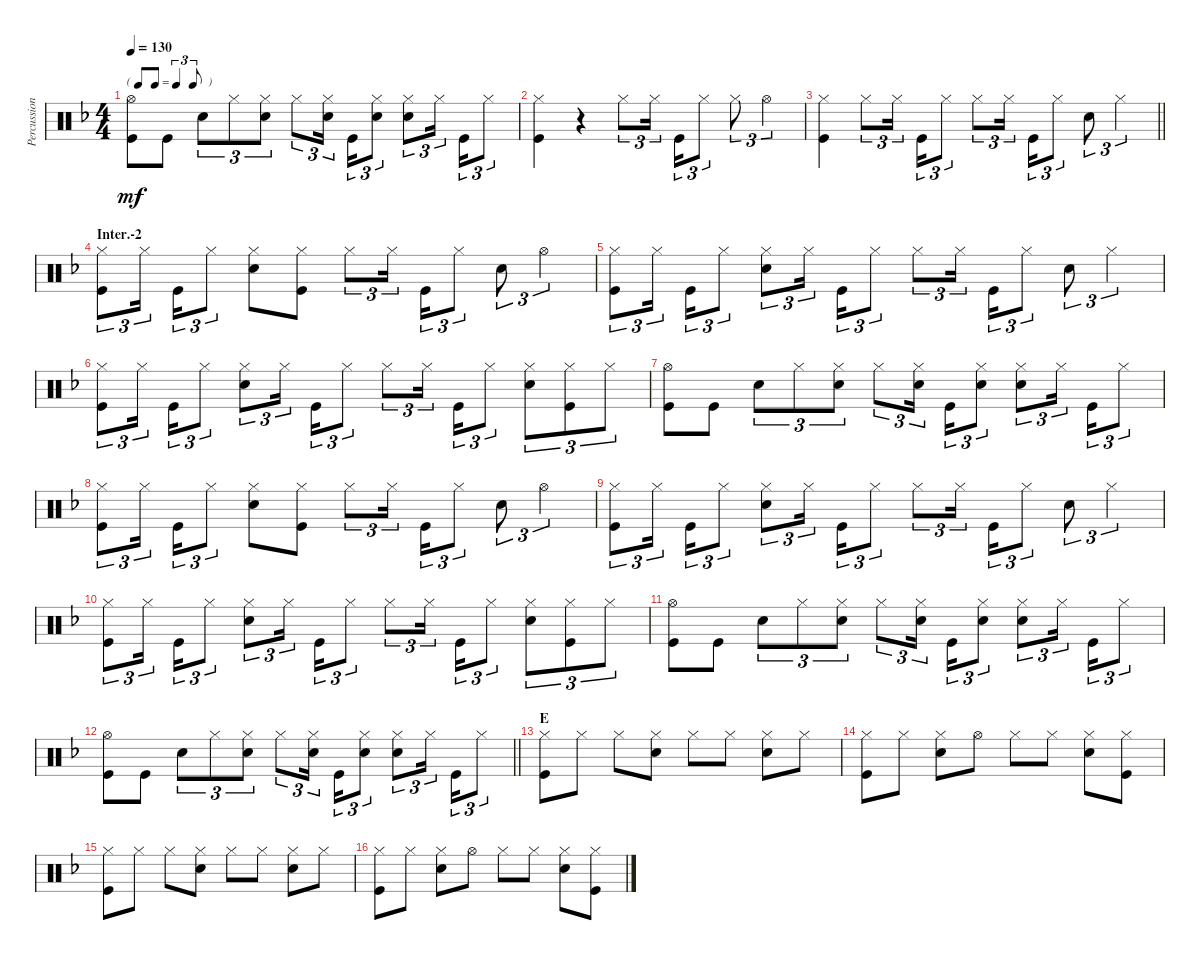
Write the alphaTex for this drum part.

\track ("Percussion I (Tainaka Ritsu)" "Percussion") {instrument percussion}
\staff {score}
\articulation defaults
\ts (4 4)
\tf triplet8th
\tempo 130
\clef neutral
\ks f
("Hi-Hat (open)" "Kick (hit)").8{dy mf} "Kick (hit)".8 "Snare (hit) 2".8{tu (3 2)} "Hi-Hat (closed)".8{tu (3 2)} ("Hi-Hat (closed)" "Snare (hit) 2").8{tu (3 2)} "Hi-Hat (closed)".8{tu (3 2)} ("Hi-Hat (closed)" "Snare (hit) 2").16{tu (3 2) beam splitsecondary} "Kick (hit)".16{tu (3 2)} ("Hi-Hat (closed)" "Snare (hit) 2").8{tu (3 2)} ("Hi-Hat (closed)" "Snare (hit) 2").8{tu (3 2)} "Hi-Hat (closed)".16{tu (3 2) beam splitsecondary} "Kick (hit)".16{tu (3 2)} "Hi-Hat (closed)".8{tu (3 2)} |
("Hi-Hat (closed)" "Kick (hit)").4 r.4 "Hi-Hat (closed)".8{tu (3 2)} "Hi-Hat (closed)".16{tu (3 2) beam splitsecondary} "Kick (hit)".16{tu (3 2)} "Hi-Hat (closed)".8{tu (3 2)} "Hi-Hat (closed)".8{tu (3 2)} "Hi-Hat (open)".4{tu (3 2)} |
\barLineRight lightlight
("Hi-Hat (closed)" "Kick (hit)").4 "Hi-Hat (closed)".8{tu (3 2)} "Hi-Hat (closed)".16{tu (3 2) beam splitsecondary} "Kick (hit)".16{tu (3 2)} "Hi-Hat (closed)".8{tu (3 2)} "Hi-Hat (closed)".8{tu (3 2)} "Hi-Hat (closed)".16{tu (3 2) beam splitsecondary} "Kick (hit)".16{tu (3 2)} "Hi-Hat (closed)".8{tu (3 2)} "Snare (hit) 2".8{tu (3 2)} "Hi-Hat (closed)".4{tu (3 2)} |
\section ("" "Inter.-2")
("Hi-Hat (closed)" "Kick (hit)").8{tu (3 2)} "Hi-Hat (closed)".16{tu (3 2) beam splitsecondary} "Kick (hit)".16{tu (3 2)} "Hi-Hat (closed)".8{tu (3 2)} ("Hi-Hat (closed)" "Snare (hit) 2").8 ("Hi-Hat (closed)" "Kick (hit)").8 "Hi-Hat (closed)".8{tu (3 2)} "Hi-Hat (closed)".16{tu (3 2) beam splitsecondary} "Kick (hit)".16{tu (3 2)} "Hi-Hat (closed)".8{tu (3 2)} "Snare (hit) 2".8{tu (3 2)} "Hi-Hat (open)".4{tu (3 2)} |
("Hi-Hat (closed)" "Kick (hit)").8{tu (3 2)} "Hi-Hat (closed)".16{tu (3 2) beam splitsecondary} "Kick (hit)".16{tu (3 2)} "Hi-Hat (closed)".8{tu (3 2)} ("Hi-Hat (closed)" "Snare (hit) 2").8{tu (3 2)} "Hi-Hat (closed)".16{tu (3 2) beam splitsecondary} "Kick (hit)".16{tu (3 2)} "Hi-Hat (closed)".8{tu (3 2)} "Hi-Hat (closed)".8{tu (3 2)} "Hi-Hat (closed)".16{tu (3 2) beam splitsecondary} "Kick (hit)".16{tu (3 2)} "Hi-Hat (closed)".8{tu (3 2)} "Snare (hit) 2".8{tu (3 2)} "Hi-Hat (closed)".4{tu (3 2)} |
("Hi-Hat (closed)" "Kick (hit)").8{tu (3 2)} "Hi-Hat (closed)".16{tu (3 2) beam splitsecondary} "Kick (hit)".16{tu (3 2)} "Hi-Hat (closed)".8{tu (3 2)} ("Hi-Hat (closed)" "Snare (hit) 2").8{tu (3 2)} "Hi-Hat (closed)".16{tu (3 2) beam splitsecondary} "Kick (hit)".16{tu (3 2)} "Hi-Hat (closed)".8{tu (3 2)} "Hi-Hat (closed)".8{tu (3 2)} "Hi-Hat (closed)".16{tu (3 2) beam splitsecondary} "Kick (hit)".16{tu (3 2)} "Hi-Hat (closed)".8{tu (3 2)} ("Hi-Hat (closed)" "Snare (hit) 2").8{tu (3 2)} ("Hi-Hat (closed)" "Kick (hit)").8{tu (3 2)} "Hi-Hat (closed)".8{tu (3 2)} |
("Hi-Hat (open)" "Kick (hit)").8 "Kick (hit)".8 "Snare (hit) 2".8{tu (3 2)} "Hi-Hat (closed)".8{tu (3 2)} ("Hi-Hat (closed)" "Snare (hit) 2").8{tu (3 2)} "Hi-Hat (closed)".8{tu (3 2)} ("Hi-Hat (closed)" "Snare (hit) 2").16{tu (3 2) beam splitsecondary} "Kick (hit)".16{tu (3 2)} ("Hi-Hat (closed)" "Snare (hit) 2").8{tu (3 2)} ("Hi-Hat (closed)" "Snare (hit) 2").8{tu (3 2)} "Hi-Hat (closed)".16{tu (3 2) beam splitsecondary} "Kick (hit)".16{tu (3 2)} "Hi-Hat (closed)".8{tu (3 2)} |
("Hi-Hat (closed)" "Kick (hit)").8{tu (3 2)} "Hi-Hat (closed)".16{tu (3 2) beam splitsecondary} "Kick (hit)".16{tu (3 2)} "Hi-Hat (closed)".8{tu (3 2)} ("Hi-Hat (closed)" "Snare (hit) 2").8 ("Hi-Hat (closed)" "Kick (hit)").8 "Hi-Hat (closed)".8{tu (3 2)} "Hi-Hat (closed)".16{tu (3 2) beam splitsecondary} "Kick (hit)".16{tu (3 2)} "Hi-Hat (closed)".8{tu (3 2)} "Snare (hit) 2".8{tu (3 2)} "Hi-Hat (open)".4{tu (3 2)} |
("Hi-Hat (closed)" "Kick (hit)").8{tu (3 2)} "Hi-Hat (closed)".16{tu (3 2) beam splitsecondary} "Kick (hit)".16{tu (3 2)} "Hi-Hat (closed)".8{tu (3 2)} ("Hi-Hat (closed)" "Snare (hit) 2").8{tu (3 2)} "Hi-Hat (closed)".16{tu (3 2) beam splitsecondary} "Kick (hit)".16{tu (3 2)} "Hi-Hat (closed)".8{tu (3 2)} "Hi-Hat (closed)".8{tu (3 2)} "Hi-Hat (closed)".16{tu (3 2) beam splitsecondary} "Kick (hit)".16{tu (3 2)} "Hi-Hat (closed)".8{tu (3 2)} "Snare (hit) 2".8{tu (3 2)} "Hi-Hat (closed)".4{tu (3 2)} |
("Hi-Hat (closed)" "Kick (hit)").8{tu (3 2)} "Hi-Hat (closed)".16{tu (3 2) beam splitsecondary} "Kick (hit)".16{tu (3 2)} "Hi-Hat (closed)".8{tu (3 2)} ("Hi-Hat (closed)" "Snare (hit) 2").8{tu (3 2)} "Hi-Hat (closed)".16{tu (3 2) beam splitsecondary} "Kick (hit)".16{tu (3 2)} "Hi-Hat (closed)".8{tu (3 2)} "Hi-Hat (closed)".8{tu (3 2)} "Hi-Hat (closed)".16{tu (3 2) beam splitsecondary} "Kick (hit)".16{tu (3 2)} "Hi-Hat (closed)".8{tu (3 2)} ("Hi-Hat (closed)" "Snare (hit) 2").8{tu (3 2)} ("Hi-Hat (closed)" "Kick (hit)").8{tu (3 2)} "Hi-Hat (closed)".8{tu (3 2)} |
("Hi-Hat (open)" "Kick (hit)").8 "Kick (hit)".8 "Snare (hit) 2".8{tu (3 2)} "Hi-Hat (closed)".8{tu (3 2)} ("Hi-Hat (closed)" "Snare (hit) 2").8{tu (3 2)} "Hi-Hat (closed)".8{tu (3 2)} ("Hi-Hat (closed)" "Snare (hit) 2").16{tu (3 2) beam splitsecondary} "Kick (hit)".16{tu (3 2)} ("Hi-Hat (closed)" "Snare (hit) 2").8{tu (3 2)} ("Hi-Hat (closed)" "Snare (hit) 2").8{tu (3 2)} "Hi-Hat (closed)".16{tu (3 2) beam splitsecondary} "Kick (hit)".16{tu (3 2)} "Hi-Hat (closed)".8{tu (3 2)} |
\barLineRight lightlight
("Hi-Hat (open)" "Kick (hit)").8 "Kick (hit)".8 "Snare (hit) 2".8{tu (3 2)} "Hi-Hat (closed)".8{tu (3 2)} ("Hi-Hat (closed)" "Snare (hit) 2").8{tu (3 2)} "Hi-Hat (closed)".8{tu (3 2)} ("Hi-Hat (closed)" "Snare (hit) 2").16{tu (3 2) beam splitsecondary} "Kick (hit)".16{tu (3 2)} ("Hi-Hat (closed)" "Snare (hit) 2").8{tu (3 2)} ("Hi-Hat (closed)" "Snare (hit) 2").8{tu (3 2)} "Hi-Hat (closed)".16{tu (3 2) beam splitsecondary} "Kick (hit)".16{tu (3 2)} "Hi-Hat (closed)".8{tu (3 2)} |
\section ("" "E")
("Hi-Hat (closed)" "Kick (hit)").8 "Hi-Hat (closed)".8 "Hi-Hat (closed)".8 ("Hi-Hat (closed)" "Snare (hit) 2").8 "Hi-Hat (closed)".8 "Hi-Hat (closed)".8 ("Hi-Hat (closed)" "Snare (hit) 2").8 "Hi-Hat (closed)".8 |
("Hi-Hat (closed)" "Kick (hit)").8 "Hi-Hat (closed)".8 ("Hi-Hat (closed)" "Snare (hit) 2").8 "Hi-Hat (open)".8 "Hi-Hat (closed)".8 "Hi-Hat (closed)".8 ("Hi-Hat (closed)" "Snare (hit) 2").8 ("Hi-Hat (closed)" "Kick (hit)").8 |
("Hi-Hat (closed)" "Kick (hit)").8 "Hi-Hat (closed)".8 "Hi-Hat (closed)".8 ("Hi-Hat (closed)" "Snare (hit) 2").8 "Hi-Hat (closed)".8 "Hi-Hat (closed)".8 ("Hi-Hat (closed)" "Snare (hit) 2").8 "Hi-Hat (closed)".8 |
("Hi-Hat (closed)" "Kick (hit)").8 "Hi-Hat (closed)".8 ("Hi-Hat (closed)" "Snare (hit) 2").8 "Hi-Hat (open)".8 "Hi-Hat (closed)".8 "Hi-Hat (closed)".8 ("Hi-Hat (closed)" "Snare (hit) 2").8 ("Hi-Hat (closed)" "Kick (hit)").8
